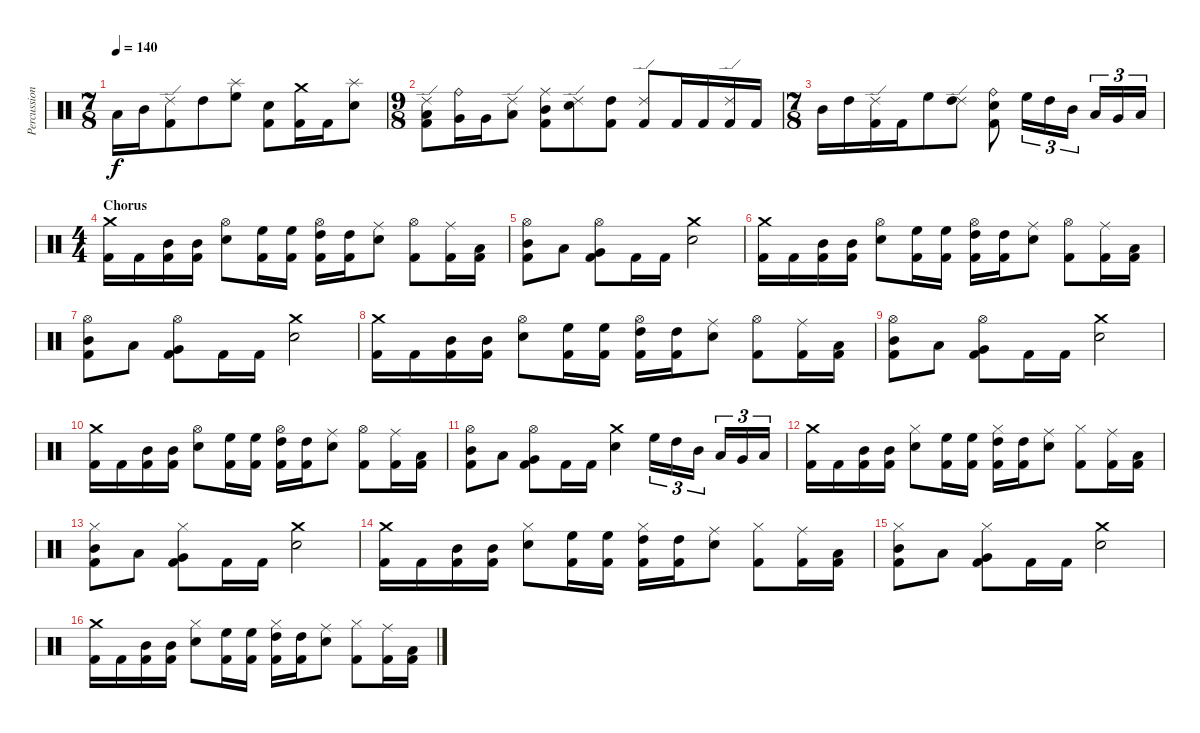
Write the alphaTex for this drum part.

\track ("Percussion" "Percussion") {instrument percussion}
\staff {score}
\articulation defaults
\ts (7 8)
\tempo 140
\clef neutral
\ks c "Low Tom (hit)".16{dy f} "Mid Tom (hit)".16
("Ride (edge) 2" "Kick (hit) 2").8 "High Tom (hit)".8 ("Splash (hit)" "High Floor Tom (hit)").8 ("Electric Snare (hit)" "Kick (hit) 2").8 ("Crash medium (hit)" "Kick (hit) 2").16 "Kick (hit) 2".16 ("Splash (hit)" "Electric Snare (hit)").8 |
\ts (9 8)
("Ride (edge) 2" "Low Floor Tom (hit)" "Kick (hit) 2").8 ("Ride (bell)" "Very Low Tom (hit)").16 "Very Low Tom (hit)".16 ("Ride (edge) 2" "Low Tom (hit)").8 ("Ride (middle)" "Mid Tom (hit)" "Kick (hit) 2").8 ("Ride (edge) 2" "Electric Snare (hit)").8 ("High Tom (hit)" "Kick (hit) 2").8 ("Ride (edge) 2" "Kick (hit) 2").8 "Kick (hit) 2".16 "Kick (hit) 2".16 ("Ride (edge) 2" "Kick (hit) 2").16 "Kick (hit) 2".16 |
\ts (7 8)
"Mid Tom (hit)".16 "High Tom (hit)".16 ("Ride (edge) 2" "Kick (hit) 2").16 "Kick (hit) 2".16 "High Floor Tom (hit)".8 ("Ride (edge) 2" "High Tom (hit)").8 ("Ride (bell)" "Electric Snare (hit)" "Kick (hit) 2").8 "High Floor Tom (hit)".16{tu (3 2)} "High Tom (hit)".16{tu (3 2)} "Mid Tom (hit)".16{tu (3 2)} "Low Tom (hit)".16{tu (3 2)} "Very Low Tom (hit)".16{tu (3 2)} "Low Floor Tom (hit)".16{tu (3 2)} |
\ts (4 4)
\section ("" "Chorus")
("Crash medium (hit)" "Kick (hit) 2").16 "Kick (hit) 2".16 ("Mid Tom (hit)" "Kick (hit) 2").16 ("Mid Tom (hit)" "Kick (hit) 2").16 ("Hi-Hat (open)" "Electric Snare (hit)").8 ("High Floor Tom (hit)" "Kick (hit) 2").16 ("High Floor Tom (hit)" "Kick (hit) 2").16 ("Hi-Hat (open)" "High Tom (hit)" "Kick (hit) 2").16 ("High Tom (hit)" "Kick (hit) 2").16 ("Ride (middle)" "Electric Snare (hit)").8 ("Hi-Hat (open)" "Kick (hit) 2").8 ("Ride (middle)" "Kick (hit) 2").16 ("Low Tom (hit)" "Kick (hit) 2").16 |
("Hi-Hat (open)" "Mid Tom (hit)" "Kick (hit) 2").8 "Low Tom (hit)".8 ("Hi-Hat (open)" "Very Low Tom (hit)" "Kick (hit) 2").8 "Kick (hit) 2".16 "Kick (hit) 2".16 ("Crash medium (hit)" "Electric Snare (hit)").2 |
("Crash medium (hit)" "Kick (hit) 2").16 "Kick (hit) 2".16 ("Mid Tom (hit)" "Kick (hit) 2").16 ("Mid Tom (hit)" "Kick (hit) 2").16 ("Hi-Hat (open)" "Electric Snare (hit)").8 ("High Floor Tom (hit)" "Kick (hit) 2").16 ("High Floor Tom (hit)" "Kick (hit) 2").16 ("Hi-Hat (open)" "High Tom (hit)" "Kick (hit) 2").16 ("High Tom (hit)" "Kick (hit) 2").16 ("Ride (middle)" "Electric Snare (hit)").8 ("Hi-Hat (open)" "Kick (hit) 2").8 ("Ride (middle)" "Kick (hit) 2").16 ("Low Tom (hit)" "Kick (hit) 2").16 |
("Hi-Hat (open)" "Mid Tom (hit)" "Kick (hit) 2").8 "Low Tom (hit)".8 ("Hi-Hat (open)" "Very Low Tom (hit)" "Kick (hit) 2").8 "Kick (hit) 2".16 "Kick (hit) 2".16 ("Crash medium (hit)" "Electric Snare (hit)").2 |
("Crash medium (hit)" "Kick (hit) 2").16 "Kick (hit) 2".16 ("Mid Tom (hit)" "Kick (hit) 2").16 ("Mid Tom (hit)" "Kick (hit) 2").16 ("Hi-Hat (open)" "Electric Snare (hit)").8 ("High Floor Tom (hit)" "Kick (hit) 2").16 ("High Floor Tom (hit)" "Kick (hit) 2").16 ("Hi-Hat (open)" "High Tom (hit)" "Kick (hit) 2").16 ("High Tom (hit)" "Kick (hit) 2").16 ("Ride (middle)" "Electric Snare (hit)").8 ("Hi-Hat (open)" "Kick (hit) 2").8 ("Ride (middle)" "Kick (hit) 2").16 ("Low Tom (hit)" "Kick (hit) 2").16 |
("Hi-Hat (open)" "Mid Tom (hit)" "Kick (hit) 2").8 "Low Tom (hit)".8 ("Hi-Hat (open)" "Very Low Tom (hit)" "Kick (hit) 2").8 "Kick (hit) 2".16 "Kick (hit) 2".16 ("Crash medium (hit)" "Electric Snare (hit)").2 |
("Crash medium (hit)" "Kick (hit) 2").16 "Kick (hit) 2".16 ("Mid Tom (hit)" "Kick (hit) 2").16 ("Mid Tom (hit)" "Kick (hit) 2").16 ("Hi-Hat (open)" "Electric Snare (hit)").8 ("High Floor Tom (hit)" "Kick (hit) 2").16 ("High Floor Tom (hit)" "Kick (hit) 2").16 ("Hi-Hat (open)" "High Tom (hit)" "Kick (hit) 2").16 ("High Tom (hit)" "Kick (hit) 2").16 ("Ride (middle)" "Electric Snare (hit)").8 ("Hi-Hat (open)" "Kick (hit) 2").8 ("Ride (middle)" "Kick (hit) 2").16 ("Low Tom (hit)" "Kick (hit) 2").16 |
("Hi-Hat (open)" "Mid Tom (hit)" "Kick (hit) 2").8 "Low Tom (hit)".8 ("Hi-Hat (open)" "Very Low Tom (hit)" "Kick (hit) 2").8 "Kick (hit) 2".16 "Kick (hit) 2".16 ("Crash medium (hit)" "Electric Snare (hit)").4 "High Floor Tom (hit)".16{tu (3 2)} "High Tom (hit)".16{tu (3 2)} "Mid Tom (hit)".16{tu (3 2)} "Low Tom (hit)".16{tu (3 2)} "Very Low Tom (hit)".16{tu (3 2)} "Low Floor Tom (hit)".16{tu (3 2)} |
("Crash medium (hit)" "Kick (hit) 2").16 "Kick (hit) 2".16 ("Mid Tom (hit)" "Kick (hit) 2").16 ("Mid Tom (hit)" "Kick (hit) 2").16 ("Hi-Hat (closed)" "Electric Snare (hit)").8 ("High Floor Tom (hit)" "Kick (hit) 2").16 ("High Floor Tom (hit)" "Kick (hit) 2").16 ("Hi-Hat (closed)" "High Tom (hit)" "Kick (hit) 2").16 ("High Tom (hit)" "Kick (hit) 2").16 ("Ride (middle)" "Electric Snare (hit)").8 ("Hi-Hat (closed)" "Kick (hit) 2").8 ("Ride (middle)" "Kick (hit) 2").16 ("Low Tom (hit)" "Kick (hit) 2").16 |
("Hi-Hat (closed)" "Mid Tom (hit)" "Kick (hit) 2").8 "Low Tom (hit)".8 ("Hi-Hat (closed)" "Very Low Tom (hit)" "Kick (hit) 2").8 "Kick (hit) 2".16 "Kick (hit) 2".16 ("Crash medium (hit)" "Electric Snare (hit)").2 |
("Crash medium (hit)" "Kick (hit) 2").16 "Kick (hit) 2".16 ("Mid Tom (hit)" "Kick (hit) 2").16 ("Mid Tom (hit)" "Kick (hit) 2").16 ("Hi-Hat (closed)" "Electric Snare (hit)").8 ("High Floor Tom (hit)" "Kick (hit) 2").16 ("High Floor Tom (hit)" "Kick (hit) 2").16 ("Hi-Hat (closed)" "High Tom (hit)" "Kick (hit) 2").16 ("High Tom (hit)" "Kick (hit) 2").16 ("Ride (middle)" "Electric Snare (hit)").8 ("Hi-Hat (closed)" "Kick (hit) 2").8 ("Ride (middle)" "Kick (hit) 2").16 ("Low Tom (hit)" "Kick (hit) 2").16 |
("Hi-Hat (closed)" "Mid Tom (hit)" "Kick (hit) 2").8 "Low Tom (hit)".8 ("Hi-Hat (closed)" "Very Low Tom (hit)" "Kick (hit) 2").8 "Kick (hit) 2".16 "Kick (hit) 2".16 ("Crash medium (hit)" "Electric Snare (hit)").2 |
("Crash medium (hit)" "Kick (hit) 2").16 "Kick (hit) 2".16 ("Mid Tom (hit)" "Kick (hit) 2").16 ("Mid Tom (hit)" "Kick (hit) 2").16 ("Hi-Hat (closed)" "Electric Snare (hit)").8 ("High Floor Tom (hit)" "Kick (hit) 2").16 ("High Floor Tom (hit)" "Kick (hit) 2").16 ("Hi-Hat (closed)" "High Tom (hit)" "Kick (hit) 2").16 ("High Tom (hit)" "Kick (hit) 2").16 ("Ride (middle)" "Electric Snare (hit)").8 ("Hi-Hat (closed)" "Kick (hit) 2").8 ("Ride (middle)" "Kick (hit) 2").16 ("Low Tom (hit)" "Kick (hit) 2").16
